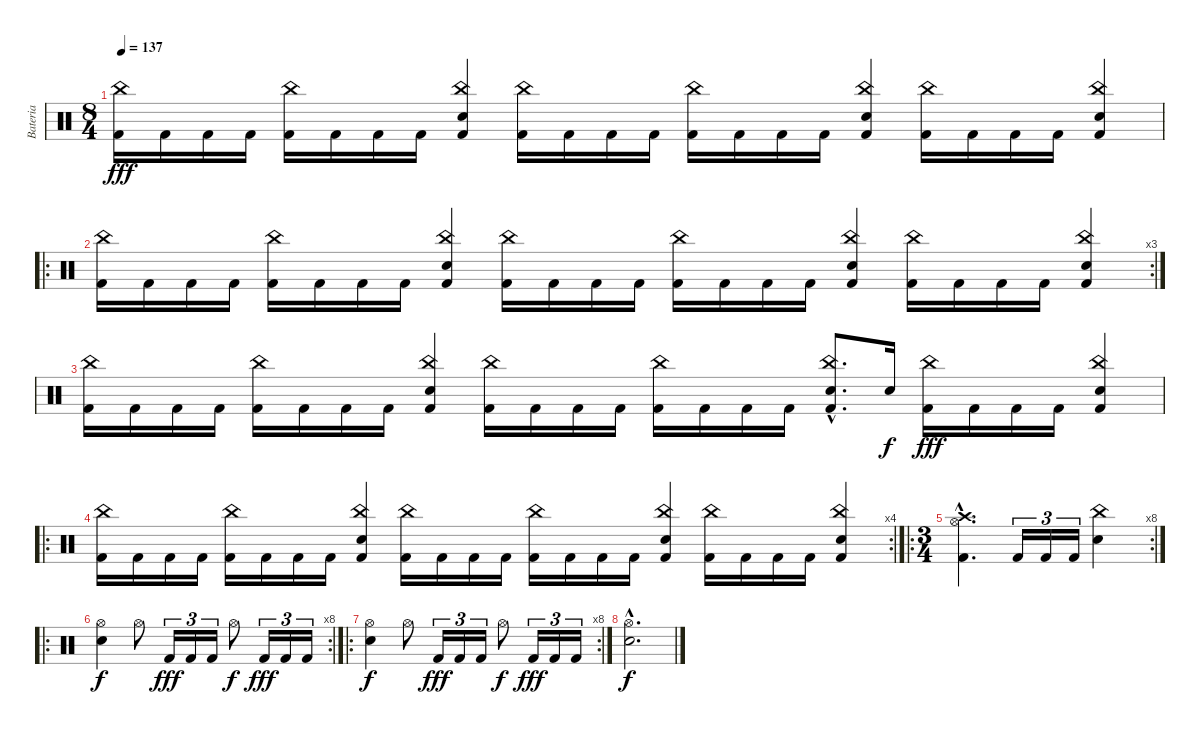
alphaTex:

\track ("Bateria" "Bateria") {instrument percussion}
\staff {score}
\articulation defaults
\ts (8 4)
\tempo 137
\clef neutral
\ks c
("Kick (hit) 2" "China (hit)").16{dy fff} "Kick (hit) 2".16 "Kick (hit) 2".16 "Kick (hit) 2".16 ("Kick (hit) 2" "China (hit)").16 "Kick (hit) 2".16 "Kick (hit) 2".16 "Kick (hit) 2".16 ("Kick (hit) 2" "China (hit)" "Electric Snare (hit)").4 ("Kick (hit) 2" "China (hit)").16 "Kick (hit) 2".16 "Kick (hit) 2".16 "Kick (hit) 2".16 ("Kick (hit) 2" "China (hit)").16 "Kick (hit) 2".16 "Kick (hit) 2".16 "Kick (hit) 2".16 ("Kick (hit) 2" "China (hit)" "Electric Snare (hit)").4 ("Kick (hit) 2" "China (hit)").16 "Kick (hit) 2".16 "Kick (hit) 2".16 "Kick (hit) 2".16 ("Kick (hit) 2" "China (hit)" "Electric Snare (hit)").4 |
\ro
\rc 3
("Kick (hit) 2" "China (hit)").16 "Kick (hit) 2".16 "Kick (hit) 2".16 "Kick (hit) 2".16 ("Kick (hit) 2" "China (hit)").16 "Kick (hit) 2".16 "Kick (hit) 2".16 "Kick (hit) 2".16 ("Kick (hit) 2" "China (hit)" "Electric Snare (hit)").4 ("Kick (hit) 2" "China (hit)").16 "Kick (hit) 2".16 "Kick (hit) 2".16 "Kick (hit) 2".16 ("Kick (hit) 2" "China (hit)").16 "Kick (hit) 2".16 "Kick (hit) 2".16 "Kick (hit) 2".16 ("Kick (hit) 2" "China (hit)" "Electric Snare (hit)").4 ("Kick (hit) 2" "China (hit)").16 "Kick (hit) 2".16 "Kick (hit) 2".16 "Kick (hit) 2".16 ("Kick (hit) 2" "China (hit)" "Electric Snare (hit)").4 |
("Kick (hit) 2" "China (hit)").16 "Kick (hit) 2".16 "Kick (hit) 2".16 "Kick (hit) 2".16 ("Kick (hit) 2" "China (hit)").16 "Kick (hit) 2".16 "Kick (hit) 2".16 "Kick (hit) 2".16 ("Kick (hit) 2" "China (hit)" "Electric Snare (hit)").4 ("Kick (hit) 2" "China (hit)").16 "Kick (hit) 2".16 "Kick (hit) 2".16 "Kick (hit) 2".16 ("Kick (hit) 2" "China (hit)").16 "Kick (hit) 2".16 "Kick (hit) 2".16 "Kick (hit) 2".16 ("Kick (hit) 2"{hac} "China (hit)"{hac} "Electric Snare (hit)"{hac}).8{d} "Electric Snare (hit)".16{dy f} ("Kick (hit) 2" "China (hit)").16{dy fff} "Kick (hit) 2".16 "Kick (hit) 2".16 "Kick (hit) 2".16 ("Kick (hit) 2" "China (hit)" "Electric Snare (hit)").4 |
\ro
\rc 4
("Kick (hit) 2" "China (hit)").16 "Kick (hit) 2".16 "Kick (hit) 2".16 "Kick (hit) 2".16 ("Kick (hit) 2" "China (hit)").16 "Kick (hit) 2".16 "Kick (hit) 2".16 "Kick (hit) 2".16 ("Kick (hit) 2" "China (hit)" "Electric Snare (hit)").4 ("Kick (hit) 2" "China (hit)").16 "Kick (hit) 2".16 "Kick (hit) 2".16 "Kick (hit) 2".16 ("Kick (hit) 2" "China (hit)").16 "Kick (hit) 2".16 "Kick (hit) 2".16 "Kick (hit) 2".16 ("Kick (hit) 2" "China (hit)" "Electric Snare (hit)").4 ("Kick (hit) 2" "China (hit)").16 "Kick (hit) 2".16 "Kick (hit) 2".16 "Kick (hit) 2".16 ("Kick (hit) 2" "China (hit)" "Electric Snare (hit)").4 |
\ro
\rc 8
\ts (3 4)
("Kick (hit) 2"{hac} "Hi-Hat (open)"{hac} "Crash high (hit)"{hac}).4{d} "Kick (hit) 2".16{tu (3 2)} "Kick (hit) 2".16{tu (3 2)} "Kick (hit) 2".16{tu (3 2)} ("Electric Snare (hit)" "China (hit)").4 |
\ro
\rc 8
("Hi-Hat (open)" "Electric Snare (hit)").4{dy f} "Hi-Hat (open)".8 "Kick (hit) 2".16{tu (3 2) dy fff} "Kick (hit) 2".16{tu (3 2)} "Kick (hit) 2".16{tu (3 2)} "Hi-Hat (open)".8{dy f} "Kick (hit) 2".16{tu (3 2) dy fff} "Kick (hit) 2".16{tu (3 2)} "Kick (hit) 2".16{tu (3 2)} |
\ro
\rc 8
("Hi-Hat (open)" "Electric Snare (hit)").4{dy f} "Hi-Hat (open)".8 "Kick (hit) 2".16{tu (3 2) dy fff} "Kick (hit) 2".16{tu (3 2)} "Kick (hit) 2".16{tu (3 2)} "Hi-Hat (open)".8{dy f} "Kick (hit) 2".16{tu (3 2) dy fff} "Kick (hit) 2".16{tu (3 2)} "Kick (hit) 2".16{tu (3 2)} |
("Hi-Hat (open)"{hac} "Electric Snare (hit)"{hac}).2{d dy f}
